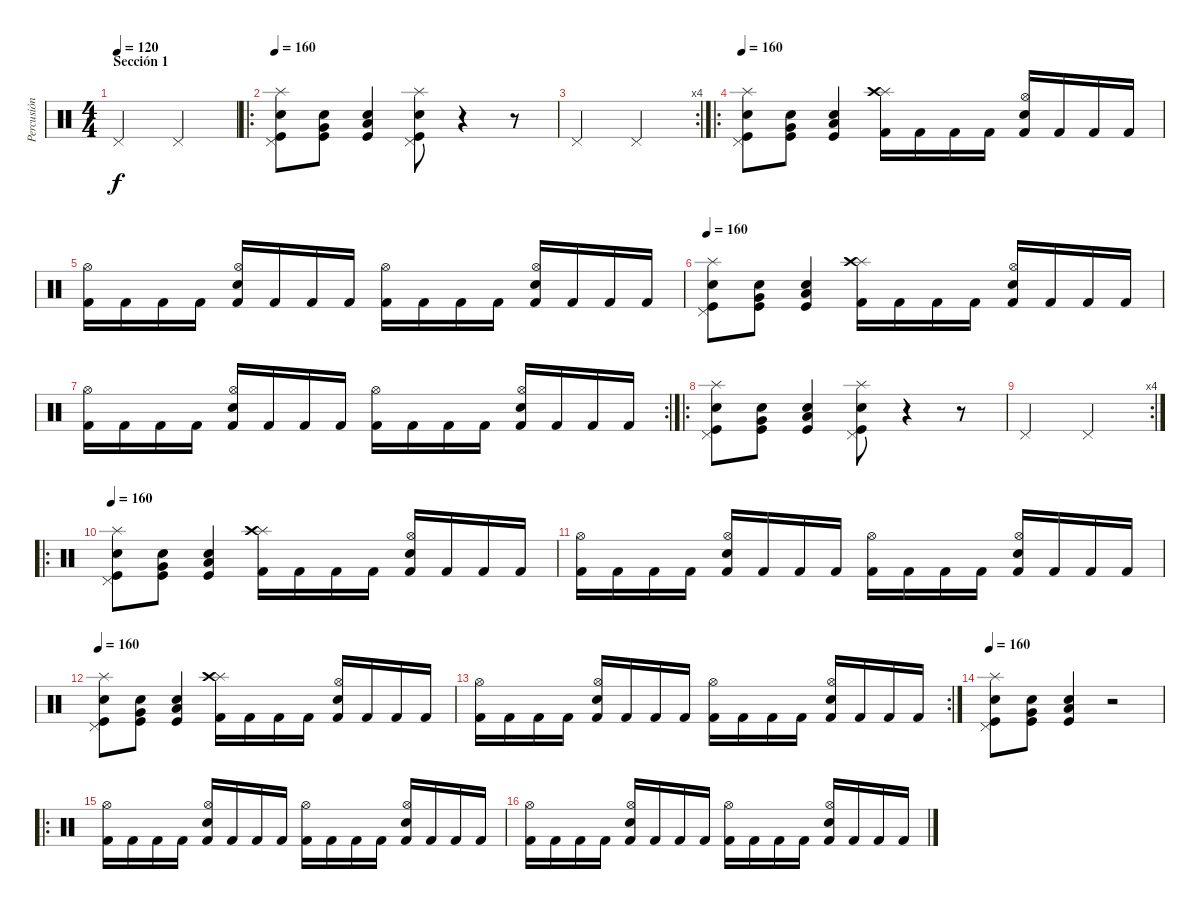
\track ("Percusión" "Percusión") {instrument percussion}
\staff {score}
\articulation defaults
\ts (4 4)
\section ("" "Sección 1")
\tempo 120
\tempo 160
\tempo 120
\clef neutral
\ks c "Pedal Hi-Hat (hit)".2{dy f} "Pedal Hi-Hat (hit)".2
|
\ro
\tempo 160
("Kick (hit)" "Pedal Hi-Hat (hit)" "Snare (hit) 2" "Splash (hit)").8 ("Kick (hit)" "Snare (hit) 2" "Very Low Tom (hit)").8 ("Kick (hit)" "Snare (hit) 2" "Low Tom (hit)").4 ("Kick (hit)" "Pedal Hi-Hat (hit)" "Snare (hit) 2" "Splash (hit)").8 r.4 r.8 |
\rc 4 "Pedal Hi-Hat (hit)".2 "Pedal Hi-Hat (hit)".2
|
\ro
\tempo 160
("Kick (hit)" "Pedal Hi-Hat (hit)" "Snare (hit) 2" "Splash (hit)").8 ("Kick (hit)" "Snare (hit) 2" "Very Low Tom (hit)").8 ("Kick (hit)" "Snare (hit) 2" "Low Tom (hit)").4 ("Splash (hit)" "Crash high (hit)" "Kick (hit) 2").16 "Kick (hit) 2".16 "Kick (hit) 2".16 "Kick (hit) 2".16 ("Hi-Hat (open)" "Electric Snare (hit)" "Kick (hit) 2").16 "Kick (hit) 2".16 "Kick (hit) 2".16 "Kick (hit) 2".16 |
("Hi-Hat (open)" "Kick (hit) 2").16 "Kick (hit) 2".16 "Kick (hit) 2".16 "Kick (hit) 2".16 ("Hi-Hat (open)" "Electric Snare (hit)" "Kick (hit) 2").16 "Kick (hit) 2".16 "Kick (hit) 2".16 "Kick (hit) 2".16 ("Hi-Hat (open)" "Kick (hit) 2").16 "Kick (hit) 2".16 "Kick (hit) 2".16 "Kick (hit) 2".16 ("Hi-Hat (open)" "Electric Snare (hit)" "Kick (hit) 2").16 "Kick (hit) 2".16 "Kick (hit) 2".16 "Kick (hit) 2".16 |
\tempo 160
("Kick (hit)" "Pedal Hi-Hat (hit)" "Snare (hit) 2" "Splash (hit)").8 ("Kick (hit)" "Snare (hit) 2" "Very Low Tom (hit)").8 ("Kick (hit)" "Snare (hit) 2" "Low Tom (hit)").4 ("Splash (hit)" "Crash high (hit)" "Kick (hit) 2").16 "Kick (hit) 2".16 "Kick (hit) 2".16 "Kick (hit) 2".16 ("Hi-Hat (open)" "Electric Snare (hit)" "Kick (hit) 2").16 "Kick (hit) 2".16 "Kick (hit) 2".16 "Kick (hit) 2".16 |
\rc 2
("Hi-Hat (open)" "Kick (hit) 2").16 "Kick (hit) 2".16 "Kick (hit) 2".16 "Kick (hit) 2".16 ("Hi-Hat (open)" "Electric Snare (hit)" "Kick (hit) 2").16 "Kick (hit) 2".16 "Kick (hit) 2".16 "Kick (hit) 2".16 ("Hi-Hat (open)" "Kick (hit) 2").16 "Kick (hit) 2".16 "Kick (hit) 2".16 "Kick (hit) 2".16 ("Hi-Hat (open)" "Electric Snare (hit)" "Kick (hit) 2").16 "Kick (hit) 2".16 "Kick (hit) 2".16 "Kick (hit) 2".16 |
\ro
("Kick (hit)" "Pedal Hi-Hat (hit)" "Snare (hit) 2" "Splash (hit)").8 ("Kick (hit)" "Snare (hit) 2" "Very Low Tom (hit)").8 ("Kick (hit)" "Snare (hit) 2" "Low Tom (hit)").4 ("Kick (hit)" "Pedal Hi-Hat (hit)" "Snare (hit) 2" "Splash (hit)").8 r.4 r.8 |
\rc 4 "Pedal Hi-Hat (hit)".2 "Pedal Hi-Hat (hit)".2
|
\ro
\tempo 160
("Kick (hit)" "Pedal Hi-Hat (hit)" "Snare (hit) 2" "Splash (hit)").8 ("Kick (hit)" "Snare (hit) 2" "Very Low Tom (hit)").8 ("Kick (hit)" "Snare (hit) 2" "Low Tom (hit)").4 ("Splash (hit)" "Crash high (hit)" "Kick (hit) 2").16 "Kick (hit) 2".16 "Kick (hit) 2".16 "Kick (hit) 2".16 ("Hi-Hat (open)" "Electric Snare (hit)" "Kick (hit) 2").16 "Kick (hit) 2".16 "Kick (hit) 2".16 "Kick (hit) 2".16 |
("Hi-Hat (open)" "Kick (hit) 2").16 "Kick (hit) 2".16 "Kick (hit) 2".16 "Kick (hit) 2".16 ("Hi-Hat (open)" "Electric Snare (hit)" "Kick (hit) 2").16 "Kick (hit) 2".16 "Kick (hit) 2".16 "Kick (hit) 2".16 ("Hi-Hat (open)" "Kick (hit) 2").16 "Kick (hit) 2".16 "Kick (hit) 2".16 "Kick (hit) 2".16 ("Hi-Hat (open)" "Electric Snare (hit)" "Kick (hit) 2").16 "Kick (hit) 2".16 "Kick (hit) 2".16 "Kick (hit) 2".16 |
\tempo 160
("Kick (hit)" "Pedal Hi-Hat (hit)" "Snare (hit) 2" "Splash (hit)").8 ("Kick (hit)" "Snare (hit) 2" "Very Low Tom (hit)").8 ("Kick (hit)" "Snare (hit) 2" "Low Tom (hit)").4 ("Splash (hit)" "Crash high (hit)" "Kick (hit) 2").16 "Kick (hit) 2".16 "Kick (hit) 2".16 "Kick (hit) 2".16 ("Hi-Hat (open)" "Electric Snare (hit)" "Kick (hit) 2").16 "Kick (hit) 2".16 "Kick (hit) 2".16 "Kick (hit) 2".16 |
\rc 2
("Hi-Hat (open)" "Kick (hit) 2").16 "Kick (hit) 2".16 "Kick (hit) 2".16 "Kick (hit) 2".16 ("Hi-Hat (open)" "Electric Snare (hit)" "Kick (hit) 2").16 "Kick (hit) 2".16 "Kick (hit) 2".16 "Kick (hit) 2".16 ("Hi-Hat (open)" "Kick (hit) 2").16 "Kick (hit) 2".16 "Kick (hit) 2".16 "Kick (hit) 2".16 ("Hi-Hat (open)" "Electric Snare (hit)" "Kick (hit) 2").16 "Kick (hit) 2".16 "Kick (hit) 2".16 "Kick (hit) 2".16 |
\tempo 160
("Kick (hit)" "Pedal Hi-Hat (hit)" "Snare (hit) 2" "Splash (hit)").8 ("Kick (hit)" "Snare (hit) 2" "Very Low Tom (hit)").8 ("Kick (hit)" "Snare (hit) 2" "Low Tom (hit)").4 r.2 |
\ro
("Hi-Hat (open)" "Kick (hit) 2").16 "Kick (hit) 2".16 "Kick (hit) 2".16 "Kick (hit) 2".16 ("Hi-Hat (open)" "Electric Snare (hit)" "Kick (hit) 2").16 "Kick (hit) 2".16 "Kick (hit) 2".16 "Kick (hit) 2".16 ("Hi-Hat (open)" "Kick (hit) 2").16 "Kick (hit) 2".16 "Kick (hit) 2".16 "Kick (hit) 2".16 ("Hi-Hat (open)" "Electric Snare (hit)" "Kick (hit) 2").16 "Kick (hit) 2".16 "Kick (hit) 2".16 "Kick (hit) 2".16 |
("Hi-Hat (open)" "Kick (hit) 2").16 "Kick (hit) 2".16 "Kick (hit) 2".16 "Kick (hit) 2".16 ("Hi-Hat (open)" "Electric Snare (hit)" "Kick (hit) 2").16 "Kick (hit) 2".16 "Kick (hit) 2".16 "Kick (hit) 2".16 ("Hi-Hat (open)" "Kick (hit) 2").16 "Kick (hit) 2".16 "Kick (hit) 2".16 "Kick (hit) 2".16 ("Hi-Hat (open)" "Electric Snare (hit)" "Kick (hit) 2").16 "Kick (hit) 2".16 "Kick (hit) 2".16 "Kick (hit) 2".16
